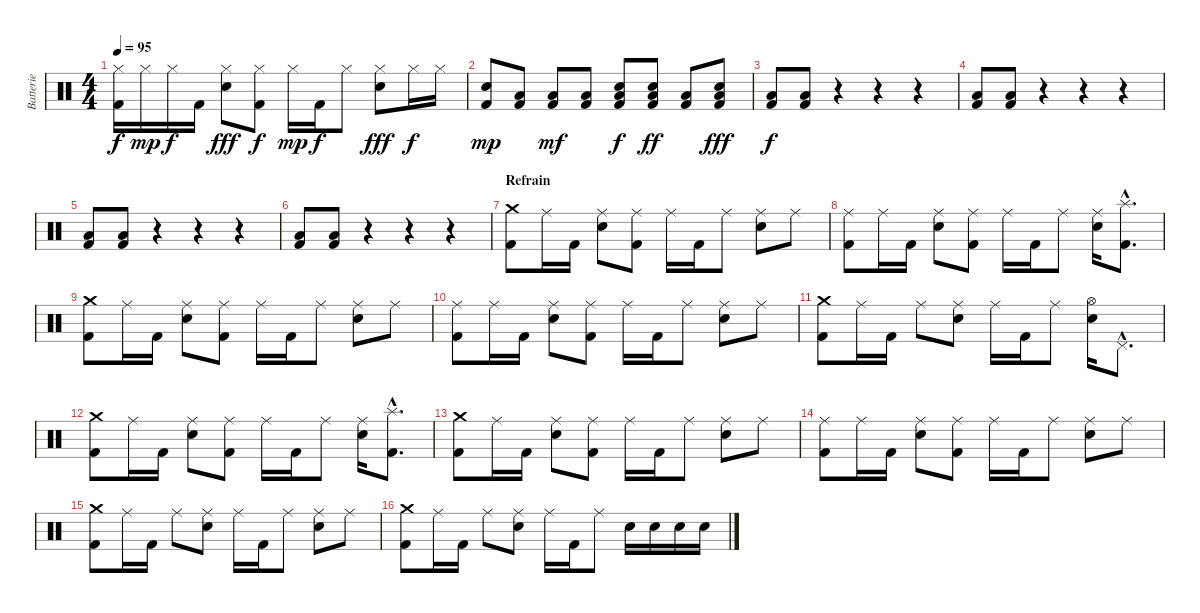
\track ("Batterie" "Batterie") {instrument percussion}
\staff {score}
\articulation defaults
\ts (4 4)
\tempo 95
\clef neutral
\ks c
("Hi-Hat (closed)" "Kick (hit) 2").16{dy f} "Hi-Hat (closed)".16{dy mp} "Hi-Hat (closed)".16{dy f} "Kick (hit) 2".16 ("Hi-Hat (closed)" "Electric Snare (hit)").8{dy fff} ("Hi-Hat (closed)" "Kick (hit) 2").8{dy f} "Hi-Hat (closed)".16{dy mp} "Kick (hit) 2".16{dy f} "Hi-Hat (closed)".8 ("Hi-Hat (closed)" "Electric Snare (hit)").8{dy fff} "Hi-Hat (closed)".16{dy f} "Hi-Hat (closed)".16 |
("Electric Snare (hit)" "Kick (hit) 2").8{dy mp} ("Low Floor Tom (hit)" "Kick (hit) 2").8 ("Low Floor Tom (hit)" "Kick (hit) 2").8{dy mf} ("Low Floor Tom (hit)" "Kick (hit) 2").8 ("Low Floor Tom (hit)" "Electric Snare (hit)" "Kick (hit) 2").8{dy f} ("Low Floor Tom (hit)" "Electric Snare (hit)" "Kick (hit) 2").8{dy ff} ("Low Floor Tom (hit)" "Kick (hit) 2").8 ("Low Floor Tom (hit)" "Electric Snare (hit)" "Kick (hit) 2").8{dy fff} |
("Low Floor Tom (hit)" "Kick (hit) 2").8{dy f} ("Low Floor Tom (hit)" "Kick (hit) 2").8 r.4 r.4 r.4 |
("Low Floor Tom (hit)" "Kick (hit) 2").8 ("Low Floor Tom (hit)" "Kick (hit) 2").8 r.4 r.4 r.4 |
("Low Floor Tom (hit)" "Kick (hit) 2").8 ("Low Floor Tom (hit)" "Kick (hit) 2").8 r.4 r.4 r.4 |
("Low Floor Tom (hit)" "Kick (hit) 2").8 ("Low Floor Tom (hit)" "Kick (hit) 2").8 r.4 r.4 r.4 |
\section ("" "Refrain")
("Crash medium (hit)" "Kick (hit) 2").8 "Ride (middle)".16 "Kick (hit) 2".16 ("Ride (middle)" "Electric Snare (hit)").8 ("Ride (middle)" "Kick (hit) 2").8 "Ride (middle)".16 "Kick (hit) 2".16 "Ride (middle)".8 ("Ride (middle)" "Electric Snare (hit)").8 "Ride (middle)".8 |
("Ride (middle)" "Kick (hit) 2").8 "Ride (middle)".16 "Kick (hit) 2".16 ("Ride (middle)" "Electric Snare (hit)").8 ("Ride (middle)" "Kick (hit) 2").8 "Ride (middle)".16 "Kick (hit) 2".16 "Ride (middle)".8 ("Ride (middle)" "Electric Snare (hit)").16 ("Splash (hit)"{hac} "Kick (hit) 2"{hac}).8{d} |
("Crash medium (hit)" "Kick (hit) 2").8 "Ride (middle)".16 "Kick (hit) 2".16 ("Ride (middle)" "Electric Snare (hit)").8 ("Ride (middle)" "Kick (hit) 2").8 "Ride (middle)".16 "Kick (hit) 2".16 "Ride (middle)".8 ("Ride (middle)" "Electric Snare (hit)").8 "Ride (middle)".8 |
("Ride (middle)" "Kick (hit) 2").8 "Ride (middle)".16 "Kick (hit) 2".16 ("Ride (middle)" "Electric Snare (hit)").8 ("Ride (middle)" "Kick (hit) 2").8 "Ride (middle)".16 "Kick (hit) 2".16 "Ride (middle)".8 ("Ride (middle)" "Electric Snare (hit)").8 "Ride (middle)".8 |
("Crash medium (hit)" "Kick (hit) 2").8 "Ride (middle)".16 "Kick (hit) 2".16 "Ride (middle)".8 ("Ride (middle)" "Electric Snare (hit)").8 "Ride (middle)".16 "Kick (hit) 2".16 "Ride (middle)".8 ("Hi-Hat (open)" "Electric Snare (hit)").16 "Pedal Hi-Hat (hit)"{hac}.8{d} |
("Crash medium (hit)" "Kick (hit) 2").8 "Ride (middle)".16 "Kick (hit) 2".16 ("Ride (middle)" "Electric Snare (hit)").8 ("Ride (middle)" "Kick (hit) 2").8 "Ride (middle)".16 "Kick (hit) 2".16 "Ride (middle)".8 ("Ride (middle)" "Electric Snare (hit)").16 ("Splash (hit)"{hac} "Kick (hit) 2"{hac}).8{d} |
("Crash medium (hit)" "Kick (hit) 2").8 "Ride (middle)".16 "Kick (hit) 2".16 ("Ride (middle)" "Electric Snare (hit)").8 ("Ride (middle)" "Kick (hit) 2").8 "Ride (middle)".16 "Kick (hit) 2".16 "Ride (middle)".8 ("Ride (middle)" "Electric Snare (hit)").8 "Ride (middle)".8 |
("Ride (middle)" "Kick (hit) 2").8 "Ride (middle)".16 "Kick (hit) 2".16 ("Ride (middle)" "Electric Snare (hit)").8 ("Ride (middle)" "Kick (hit) 2").8 "Ride (middle)".16 "Kick (hit) 2".16 "Ride (middle)".8 ("Ride (middle)" "Electric Snare (hit)").8 "Ride (middle)".8 |
("Crash medium (hit)" "Kick (hit) 2").8 "Ride (middle)".16 "Kick (hit) 2".16 "Ride (middle)".8 ("Ride (middle)" "Electric Snare (hit)").8 "Ride (middle)".16 "Kick (hit) 2".16 "Ride (middle)".8 ("Ride (middle)" "Electric Snare (hit)").8 "Ride (middle)".8 |
("Crash medium (hit)" "Kick (hit) 2").8 "Ride (middle)".16 "Kick (hit) 2".16 "Ride (middle)".8 ("Ride (middle)" "Electric Snare (hit)").8 "Ride (middle)".16 "Kick (hit) 2".16 "Ride (middle)".8 "Electric Snare (hit)".16 "Electric Snare (hit)".16 "Electric Snare (hit)".16 "Electric Snare (hit)".16
